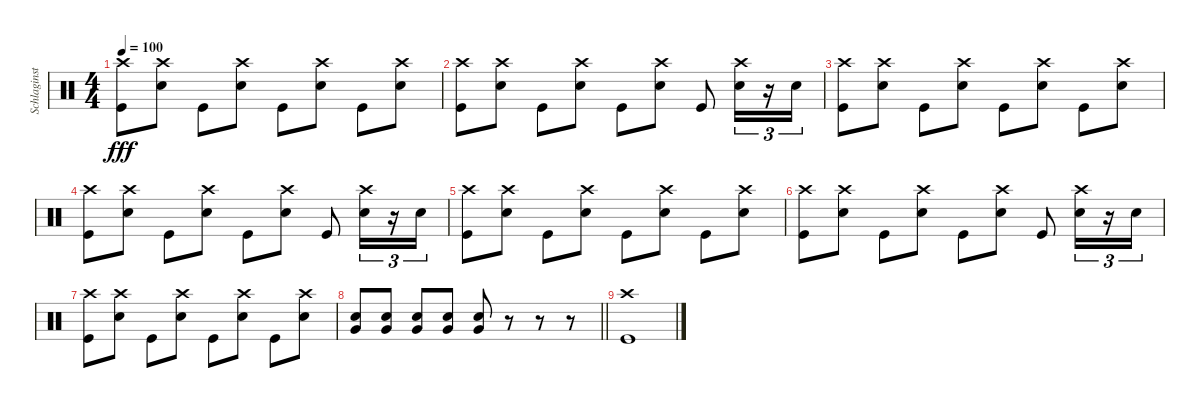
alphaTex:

\track ("Schlaginstrumente - Auswahl" "Schlaginst") {instrument percussion}
\staff {score}
\articulation defaults
\ts (4 4)
\tempo 100
\clef neutral
\ks c
("Crash high (hit)" "Kick (hit)").8{dy fff} ("Crash high (hit)" "Snare (hit) 2").8 "Kick (hit)".8 ("Crash high (hit)" "Snare (hit) 2").8 "Kick (hit)".8 ("Crash high (hit)" "Snare (hit) 2").8 "Kick (hit)".8 ("Crash high (hit)" "Snare (hit) 2").8 |
("Crash high (hit)" "Kick (hit)").8 ("Crash high (hit)" "Snare (hit) 2").8 "Kick (hit)".8 ("Crash high (hit)" "Snare (hit) 2").8 "Kick (hit)".8 ("Crash high (hit)" "Snare (hit) 2").8 "Kick (hit)".8 ("Crash high (hit)" "Snare (hit) 2").16{tu (3 2)} r.16{tu (3 2)} "Snare (hit) 2".16{tu (3 2)} |
("Crash high (hit)" "Kick (hit)").8 ("Crash high (hit)" "Snare (hit) 2").8 "Kick (hit)".8 ("Crash high (hit)" "Snare (hit) 2").8 "Kick (hit)".8 ("Crash high (hit)" "Snare (hit) 2").8 "Kick (hit)".8 ("Crash high (hit)" "Snare (hit) 2").8 |
("Crash high (hit)" "Kick (hit)").8 ("Crash high (hit)" "Snare (hit) 2").8 "Kick (hit)".8 ("Crash high (hit)" "Snare (hit) 2").8 "Kick (hit)".8 ("Crash high (hit)" "Snare (hit) 2").8 "Kick (hit)".8 ("Crash high (hit)" "Snare (hit) 2").16{tu (3 2)} r.16{tu (3 2)} "Snare (hit) 2".16{tu (3 2)} |
("Crash high (hit)" "Kick (hit)").8 ("Crash high (hit)" "Snare (hit) 2").8 "Kick (hit)".8 ("Crash high (hit)" "Snare (hit) 2").8 "Kick (hit)".8 ("Crash high (hit)" "Snare (hit) 2").8 "Kick (hit)".8 ("Crash high (hit)" "Snare (hit) 2").8 |
("Crash high (hit)" "Kick (hit)").8 ("Crash high (hit)" "Snare (hit) 2").8 "Kick (hit)".8 ("Crash high (hit)" "Snare (hit) 2").8 "Kick (hit)".8 ("Crash high (hit)" "Snare (hit) 2").8 "Kick (hit)".8 ("Crash high (hit)" "Snare (hit) 2").16{tu (3 2)} r.16{tu (3 2)} "Snare (hit) 2".16{tu (3 2)} |
("Crash high (hit)" "Kick (hit)").8 ("Crash high (hit)" "Snare (hit) 2").8 "Kick (hit)".8 ("Crash high (hit)" "Snare (hit) 2").8 "Kick (hit)".8 ("Crash high (hit)" "Snare (hit) 2").8 "Kick (hit)".8 ("Crash high (hit)" "Snare (hit) 2").8 |
\barLineRight lightlight
("Very Low Tom (hit)" "Snare (hit) 2").8 ("Very Low Tom (hit)" "Snare (hit) 2").8 ("Very Low Tom (hit)" "Snare (hit) 2").8 ("Very Low Tom (hit)" "Snare (hit) 2").8 ("Very Low Tom (hit)" "Snare (hit) 2").8 r.8 r.8 r.8 |
("Crash high (hit)" "Kick (hit)").1
